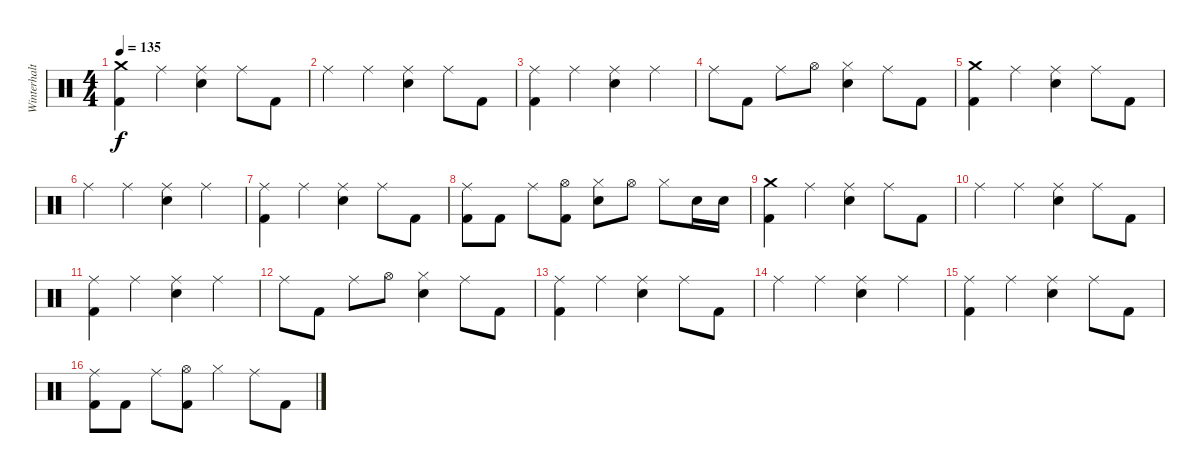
\track ("Winterhalter" "Winterhalt") {instrument percussion}
\staff {score}
\articulation defaults
\ts (4 4)
\tempo 135
\clef neutral
\ks c
("Crash medium (hit)" "Kick (hit) 2").4{dy f} "Ride (middle)".4 ("Ride (middle)" "Snare (hit) 2").4 "Ride (middle)".8 "Kick (hit) 2".8 |
"Ride (middle)".4 "Ride (middle)".4 ("Ride (middle)" "Snare (hit) 2").4 "Ride (middle)".8 "Kick (hit) 2".8 |
("Ride (middle)" "Kick (hit) 2").4 "Ride (middle)".4 ("Ride (middle)" "Snare (hit) 2").4 "Ride (middle)".4 |
"Ride (middle)".8 "Kick (hit) 2".8 "Ride (middle)".8 "Hi-Hat (open)".8 ("Hi-Hat (closed)" "Snare (hit) 2").4 "Ride (middle)".8 "Kick (hit) 2".8 |
("Crash medium (hit)" "Kick (hit) 2").4 "Ride (middle)".4 ("Ride (middle)" "Snare (hit) 2").4 "Ride (middle)".8 "Kick (hit) 2".8 |
"Ride (middle)".4 "Ride (middle)".4 ("Ride (middle)" "Snare (hit) 2").4 "Ride (middle)".4 |
("Ride (middle)" "Kick (hit) 2").4 "Ride (middle)".4 ("Ride (middle)" "Snare (hit) 2").4 "Ride (middle)".8 "Kick (hit) 2".8 |
("Ride (middle)" "Kick (hit) 2").8 "Kick (hit) 2".8 "Ride (middle)".8 ("Hi-Hat (open)" "Kick (hit) 2").8 ("Hi-Hat (closed)" "Snare (hit) 2").8 "Hi-Hat (open)".8 "Hi-Hat (closed)".8 "Snare (hit) 2".16 "Snare (hit) 2".16 |
("Crash medium (hit)" "Kick (hit) 2").4 "Ride (middle)".4 ("Ride (middle)" "Snare (hit) 2").4 "Ride (middle)".8 "Kick (hit) 2".8 |
"Ride (middle)".4 "Ride (middle)".4 ("Ride (middle)" "Snare (hit) 2").4 "Ride (middle)".8 "Kick (hit) 2".8 |
("Ride (middle)" "Kick (hit) 2").4 "Ride (middle)".4 ("Ride (middle)" "Snare (hit) 2").4 "Ride (middle)".4 |
"Ride (middle)".8 "Kick (hit) 2".8 "Ride (middle)".8 "Hi-Hat (open)".8 ("Hi-Hat (closed)" "Snare (hit) 2").4 "Ride (middle)".8 "Kick (hit) 2".8 |
("Ride (middle)" "Kick (hit) 2").4 "Ride (middle)".4 ("Ride (middle)" "Snare (hit) 2").4 "Ride (middle)".8 "Kick (hit) 2".8 |
"Ride (middle)".4 "Ride (middle)".4 ("Ride (middle)" "Snare (hit) 2").4 "Ride (middle)".4 |
("Ride (middle)" "Kick (hit) 2").4 "Ride (middle)".4 ("Ride (middle)" "Snare (hit) 2").4 "Ride (middle)".8 "Kick (hit) 2".8 |
("Ride (middle)" "Kick (hit) 2").8 "Kick (hit) 2".8 "Ride (middle)".8 ("Hi-Hat (open)" "Kick (hit) 2").8 "Hi-Hat (closed)".4 "Ride (middle)".8 "Kick (hit) 2".8
